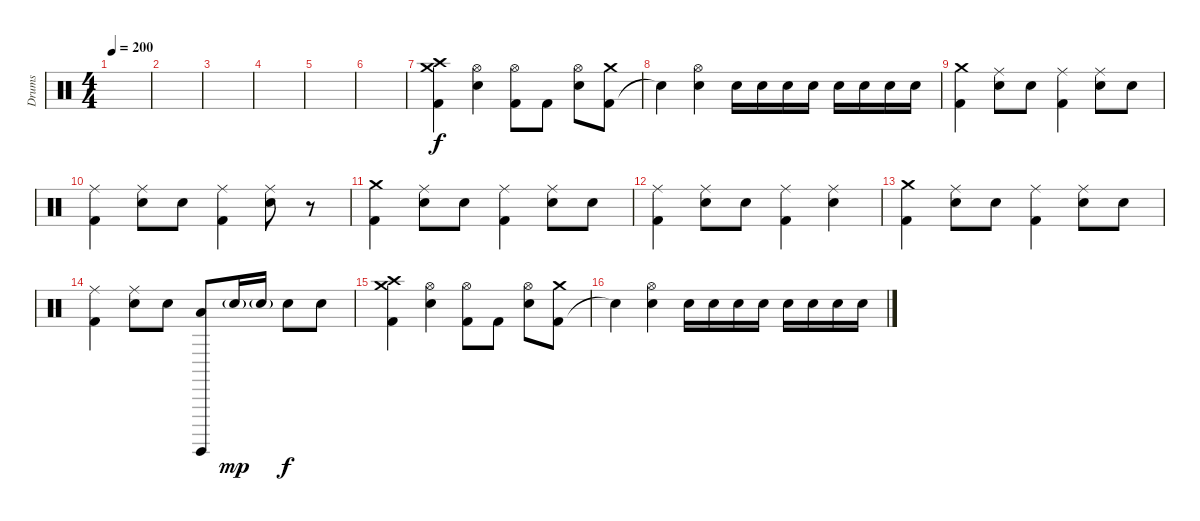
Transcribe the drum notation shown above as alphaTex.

\track ("Drums" "Drums") {instrument percussion}
\staff {score}
\articulation defaults
\ts (4 4)
\tempo 200
\clef neutral
\ks c
|
|
|
|
|
|
("Crash medium (hit)" "Kick (hit) 2" "Crash high (hit)").4 ("Electric Snare (hit)" "Hi-Hat (open)").4 ("Kick (hit) 2" "Hi-Hat (open)").8 "Kick (hit) 2".8 ("Electric Snare (hit)" "Hi-Hat (open)").8 ("Kick (hit) 2" "Crash medium (hit)").8 |
"Snare (hit)"{t}.4 ("Electric Snare (hit)" "Hi-Hat (open)").4 "Electric Snare (hit)".16 "Electric Snare (hit)".16 "Electric Snare (hit)".16 "Electric Snare (hit)".16 "Electric Snare (hit)".16 "Electric Snare (hit)".16 "Electric Snare (hit)".16 "Electric Snare (hit)".16 |
("Kick (hit) 2" "Crash medium (hit)").4 ("Electric Snare (hit)" "Ride (middle)").8 "Electric Snare (hit)".8 ("Kick (hit) 2" "Ride (middle)").4 ("Electric Snare (hit)" "Ride (middle)").8 "Electric Snare (hit)".8 |
("Kick (hit) 2" "Ride (middle)").4 ("Electric Snare (hit)" "Ride (middle)").8 "Electric Snare (hit)".8 ("Kick (hit) 2" "Ride (middle)").4 ("Electric Snare (hit)" "Ride (middle)").8 r.8 |
("Kick (hit) 2" "Crash medium (hit)").4 ("Electric Snare (hit)" "Ride (middle)").8 "Electric Snare (hit)".8 ("Kick (hit) 2" "Ride (middle)").4 ("Electric Snare (hit)" "Ride (middle)").8 "Electric Snare (hit)".8 |
("Kick (hit) 2" "Ride (middle)").4 ("Electric Snare (hit)" "Ride (middle)").8 "Electric Snare (hit)".8 ("Kick (hit) 2" "Ride (middle)").4 ("Electric Snare (hit)" "Ride (middle)").4 |
("Kick (hit) 2" "Crash medium (hit)").4 ("Electric Snare (hit)" "Ride (middle)").8 "Electric Snare (hit)".8 ("Kick (hit) 2" "Ride (middle)").4 ("Electric Snare (hit)" "Ride (middle)").8 "Electric Snare (hit)".8 |
("Kick (hit) 2" "Ride (middle)").4 ("Electric Snare (hit)" "Ride (middle)").8 "Electric Snare (hit)".8 ("Low Tom (hit)" "Surdo (hit)").8 "Electric Snare (hit)"{g}.16{dy mp} "Electric Snare (hit)"{g}.16 "Electric Snare (hit)".8{dy f} "Electric Snare (hit)".8 |
("Crash medium (hit)" "Kick (hit) 2" "Crash high (hit)").4 ("Electric Snare (hit)" "Hi-Hat (open)").4 ("Kick (hit) 2" "Hi-Hat (open)").8 "Kick (hit) 2".8 ("Electric Snare (hit)" "Hi-Hat (open)").8 ("Kick (hit) 2" "Crash medium (hit)").8 |
"Snare (hit)"{t}.4 ("Electric Snare (hit)" "Hi-Hat (open)").4 "Electric Snare (hit)".16 "Electric Snare (hit)".16 "Electric Snare (hit)".16 "Electric Snare (hit)".16 "Electric Snare (hit)".16 "Electric Snare (hit)".16 "Electric Snare (hit)".16 "Electric Snare (hit)".16
